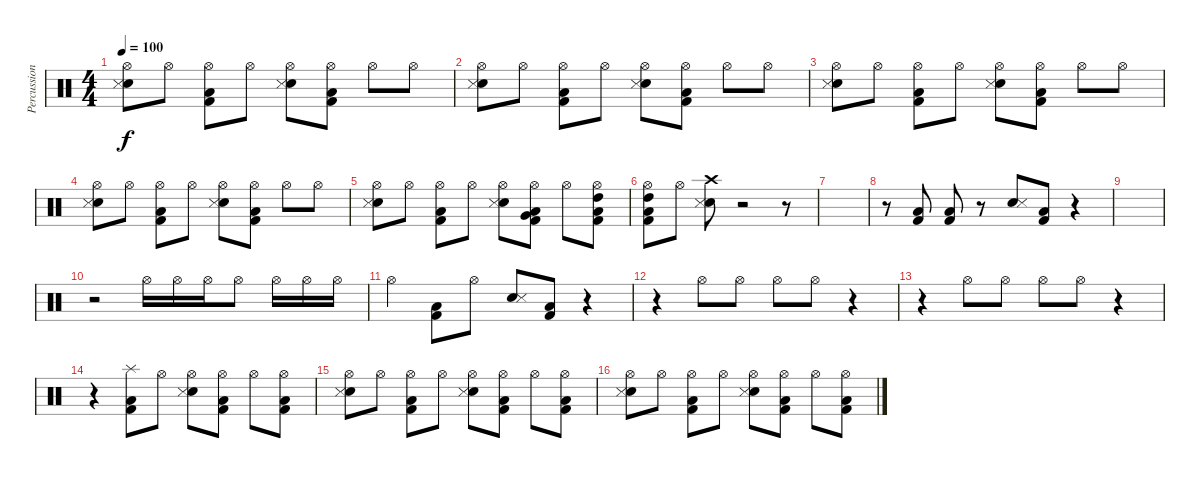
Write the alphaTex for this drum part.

\track ("Percussions" "Percussion") {instrument percussion}
\staff {score}
\articulation defaults
\ts (4 4)
\tempo 100
\clef neutral
\ks c
("Hi-Hat (open)" "Snare (hit) 2" "Snare (side stick) 3").8{dy f} "Hi-Hat (open)".8 ("Hi-Hat (open)" "Kick (hit) 2" "Low Floor Tom (hit)").8 "Hi-Hat (open)".8 ("Hi-Hat (open)" "Snare (hit) 2" "Snare (side stick) 3").8 ("Hi-Hat (open)" "Kick (hit) 2" "Low Floor Tom (hit)").8 "Hi-Hat (open)".8 "Hi-Hat (open)".8 |
("Hi-Hat (open)" "Snare (hit) 2" "Snare (side stick) 3").8 "Hi-Hat (open)".8 ("Hi-Hat (open)" "Kick (hit) 2" "Low Floor Tom (hit)").8 "Hi-Hat (open)".8 ("Hi-Hat (open)" "Snare (hit) 2" "Snare (side stick) 3").8 ("Hi-Hat (open)" "Kick (hit) 2" "Low Floor Tom (hit)").8 "Hi-Hat (open)".8 "Hi-Hat (open)".8 |
("Hi-Hat (open)" "Snare (hit) 2" "Snare (side stick) 3").8 "Hi-Hat (open)".8 ("Hi-Hat (open)" "Kick (hit) 2" "Low Floor Tom (hit)").8 "Hi-Hat (open)".8 ("Hi-Hat (open)" "Snare (hit) 2" "Snare (side stick) 3").8 ("Hi-Hat (open)" "Kick (hit) 2" "Low Floor Tom (hit)").8 "Hi-Hat (open)".8 "Hi-Hat (open)".8 |
("Hi-Hat (open)" "Snare (hit) 2" "Snare (side stick) 3").8 "Hi-Hat (open)".8 ("Hi-Hat (open)" "Kick (hit) 2" "Low Floor Tom (hit)").8 "Hi-Hat (open)".8 ("Hi-Hat (open)" "Snare (hit) 2" "Snare (side stick) 3").8 ("Hi-Hat (open)" "Kick (hit) 2" "Low Floor Tom (hit)").8 "Hi-Hat (open)".8 "Hi-Hat (open)".8 |
("Hi-Hat (open)" "Snare (hit) 2" "Snare (side stick) 3").8 "Hi-Hat (open)".8 ("Hi-Hat (open)" "Kick (hit) 2" "Low Floor Tom (hit)").8 "Hi-Hat (open)".8 ("Hi-Hat (open)" "Snare (hit) 2" "Snare (side stick) 3").8 ("Hi-Hat (open)" "Kick (hit) 2" "Low Floor Tom (hit)" "Very Low Tom (hit)").8 "Hi-Hat (open)".8 ("Hi-Hat (open)" "Kick (hit) 2" "Low Floor Tom (hit)" "High Tom (hit)").8 |
("Hi-Hat (open)" "Kick (hit) 2" "Low Floor Tom (hit)" "High Tom (hit)").8 "Hi-Hat (open)".8 ("Crash high (hit)" "Snare (hit) 2" "Snare (side stick) 3").8 r.2 r.8 |
|
r.8 ("Kick (hit) 2" "Low Floor Tom (hit)").8 ("Kick (hit) 2" "Low Floor Tom (hit)").8 r.8 ("Snare (hit) 2" "Snare (side stick) 3").8 ("Kick (hit) 2" "Low Floor Tom (hit)").8 r.4 |
|
r.2 "Hi-Hat (open)".16 "Hi-Hat (open)".16 "Hi-Hat (open)".16 "Hi-Hat (open)".8 "Hi-Hat (open)".16 "Hi-Hat (open)".16 "Hi-Hat (open)".16 |
"Hi-Hat (open)".4 ("Kick (hit) 2" "Low Floor Tom (hit)").8 "Hi-Hat (open)".8 ("Snare (hit) 2" "Snare (side stick) 3").8 ("Kick (hit) 2" "Low Floor Tom (hit)").8 r.4 |
r.4 "Hi-Hat (open)".8 "Hi-Hat (open)".8 "Hi-Hat (open)".8 "Hi-Hat (open)".8 r.4 |
r.4 "Hi-Hat (open)".8 "Hi-Hat (open)".8 "Hi-Hat (open)".8 "Hi-Hat (open)".8 r.4 |
r.4 ("Splash (hit)" "Kick (hit) 2" "Low Floor Tom (hit)").8 "Hi-Hat (open)".8 ("Hi-Hat (open)" "Snare (hit) 2" "Snare (side stick) 3").8 ("Hi-Hat (open)" "Kick (hit) 2" "Low Floor Tom (hit)").8 "Hi-Hat (open)".8 ("Hi-Hat (open)" "Kick (hit) 2" "Low Floor Tom (hit)").8 |
("Hi-Hat (open)" "Snare (hit) 2" "Snare (side stick) 3").8 "Hi-Hat (open)".8 ("Hi-Hat (open)" "Kick (hit) 2" "Low Floor Tom (hit)").8 "Hi-Hat (open)".8 ("Hi-Hat (open)" "Snare (hit) 2" "Snare (side stick) 3").8 ("Hi-Hat (open)" "Kick (hit) 2" "Low Floor Tom (hit)").8 "Hi-Hat (open)".8 ("Hi-Hat (open)" "Kick (hit) 2" "Low Floor Tom (hit)").8 |
("Hi-Hat (open)" "Snare (hit) 2" "Snare (side stick) 3").8 "Hi-Hat (open)".8 ("Hi-Hat (open)" "Kick (hit) 2" "Low Floor Tom (hit)").8 "Hi-Hat (open)".8 ("Hi-Hat (open)" "Snare (hit) 2" "Snare (side stick) 3").8 ("Hi-Hat (open)" "Kick (hit) 2" "Low Floor Tom (hit)").8 "Hi-Hat (open)".8 ("Hi-Hat (open)" "Kick (hit) 2" "Low Floor Tom (hit)").8
